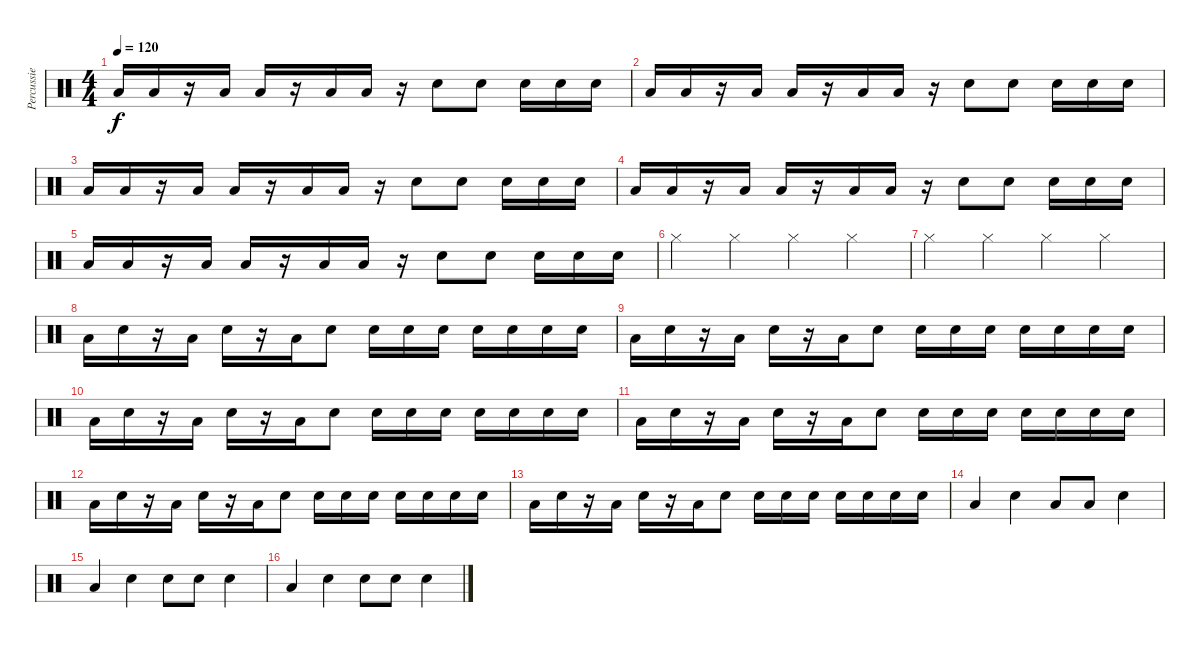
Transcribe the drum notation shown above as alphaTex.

\track ("Percussie" "Percussie") {instrument percussion}
\staff {score}
\articulation defaults
\ts (4 4)
\tempo 120
\clef neutral
\ks c "Low Floor Tom (hit)".16{dy f} "Low Floor Tom (hit)".16
r.16 "Low Floor Tom (hit)".16 "Low Floor Tom (hit)".16 r.16 "Low Floor Tom (hit)".16 "Low Floor Tom (hit)".16 r.16 "Electric Snare (hit)".8 "Electric Snare (hit)".8 "Electric Snare (hit)".16 "Electric Snare (hit)".16 "Electric Snare (hit)".16 |
"Low Floor Tom (hit)".16 "Low Floor Tom (hit)".16 r.16 "Low Floor Tom (hit)".16 "Low Floor Tom (hit)".16 r.16 "Low Floor Tom (hit)".16 "Low Floor Tom (hit)".16 r.16 "Electric Snare (hit)".8 "Electric Snare (hit)".8 "Electric Snare (hit)".16 "Electric Snare (hit)".16 "Electric Snare (hit)".16 |
"Low Floor Tom (hit)".16 "Low Floor Tom (hit)".16 r.16 "Low Floor Tom (hit)".16 "Low Floor Tom (hit)".16 r.16 "Low Floor Tom (hit)".16 "Low Floor Tom (hit)".16 r.16 "Electric Snare (hit)".8 "Electric Snare (hit)".8 "Electric Snare (hit)".16 "Electric Snare (hit)".16 "Electric Snare (hit)".16 |
"Low Floor Tom (hit)".16 "Low Floor Tom (hit)".16 r.16 "Low Floor Tom (hit)".16 "Low Floor Tom (hit)".16 r.16 "Low Floor Tom (hit)".16 "Low Floor Tom (hit)".16 r.16 "Electric Snare (hit)".8 "Electric Snare (hit)".8 "Electric Snare (hit)".16 "Electric Snare (hit)".16 "Electric Snare (hit)".16 |
"Low Floor Tom (hit)".16 "Low Floor Tom (hit)".16 r.16 "Low Floor Tom (hit)".16 "Low Floor Tom (hit)".16 r.16 "Low Floor Tom (hit)".16 "Low Floor Tom (hit)".16 r.16 "Electric Snare (hit)".8 "Electric Snare (hit)".8 "Electric Snare (hit)".16 "Electric Snare (hit)".16 "Electric Snare (hit)".16 |
"Hi-Hat (closed)".4 "Hi-Hat (closed)".4 "Hi-Hat (closed)".4 "Hi-Hat (closed)".4 |
"Hi-Hat (closed)".4 "Hi-Hat (closed)".4 "Hi-Hat (closed)".4 "Hi-Hat (closed)".4 |
"Low Floor Tom (hit)".16 "Electric Snare (hit)".16 r.16 "Low Floor Tom (hit)".16 "Electric Snare (hit)".16 r.16 "Low Floor Tom (hit)".16 "Electric Snare (hit)".8 "Electric Snare (hit)".16 "Electric Snare (hit)".16 "Electric Snare (hit)".16 "Electric Snare (hit)".16 "Electric Snare (hit)".16 "Electric Snare (hit)".16 "Electric Snare (hit)".16 |
"Low Floor Tom (hit)".16 "Electric Snare (hit)".16 r.16 "Low Floor Tom (hit)".16 "Electric Snare (hit)".16 r.16 "Low Floor Tom (hit)".16 "Electric Snare (hit)".8 "Electric Snare (hit)".16 "Electric Snare (hit)".16 "Electric Snare (hit)".16 "Electric Snare (hit)".16 "Electric Snare (hit)".16 "Electric Snare (hit)".16 "Electric Snare (hit)".16 |
"Low Floor Tom (hit)".16 "Electric Snare (hit)".16 r.16 "Low Floor Tom (hit)".16 "Electric Snare (hit)".16 r.16 "Low Floor Tom (hit)".16 "Electric Snare (hit)".8 "Electric Snare (hit)".16 "Electric Snare (hit)".16 "Electric Snare (hit)".16 "Electric Snare (hit)".16 "Electric Snare (hit)".16 "Electric Snare (hit)".16 "Electric Snare (hit)".16 |
"Low Floor Tom (hit)".16 "Electric Snare (hit)".16 r.16 "Low Floor Tom (hit)".16 "Electric Snare (hit)".16 r.16 "Low Floor Tom (hit)".16 "Electric Snare (hit)".8 "Electric Snare (hit)".16 "Electric Snare (hit)".16 "Electric Snare (hit)".16 "Electric Snare (hit)".16 "Electric Snare (hit)".16 "Electric Snare (hit)".16 "Electric Snare (hit)".16 |
"Low Floor Tom (hit)".16 "Electric Snare (hit)".16 r.16 "Low Floor Tom (hit)".16 "Electric Snare (hit)".16 r.16 "Low Floor Tom (hit)".16 "Electric Snare (hit)".8 "Electric Snare (hit)".16 "Electric Snare (hit)".16 "Electric Snare (hit)".16 "Electric Snare (hit)".16 "Electric Snare (hit)".16 "Electric Snare (hit)".16 "Electric Snare (hit)".16 |
"Low Floor Tom (hit)".16 "Electric Snare (hit)".16 r.16 "Low Floor Tom (hit)".16 "Electric Snare (hit)".16 r.16 "Low Floor Tom (hit)".16 "Electric Snare (hit)".8 "Electric Snare (hit)".16 "Electric Snare (hit)".16 "Electric Snare (hit)".16 "Electric Snare (hit)".16 "Electric Snare (hit)".16 "Electric Snare (hit)".16 "Electric Snare (hit)".16 |
"Low Floor Tom (hit)".4 "Electric Snare (hit)".4 "Low Floor Tom (hit)".8 "Low Floor Tom (hit)".8 "Electric Snare (hit)".4 |
"Low Floor Tom (hit)".4 "Electric Snare (hit)".4 "Electric Snare (hit)".8 "Electric Snare (hit)".8 "Electric Snare (hit)".4 |
"Low Floor Tom (hit)".4 "Electric Snare (hit)".4 "Electric Snare (hit)".8 "Electric Snare (hit)".8 "Electric Snare (hit)".4
